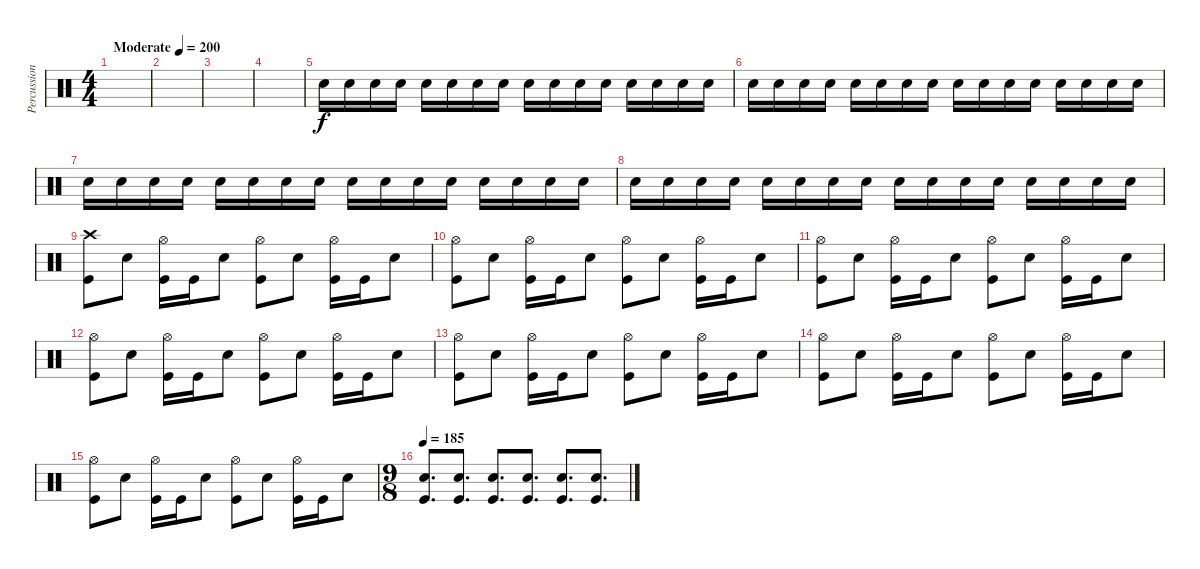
\track ("Percussion" "Percussion") {instrument percussion}
\staff {score}
\articulation defaults
\ts (4 4)
\tempo (200 "Moderate")
\clef neutral
\ks c
|
|
|
|
"Snare (hit) 2".16 "Snare (hit) 2".16 "Snare (hit) 2".16 "Snare (hit) 2".16 "Snare (hit) 2".16 "Snare (hit) 2".16 "Snare (hit) 2".16 "Snare (hit) 2".16 "Snare (hit) 2".16 "Snare (hit) 2".16 "Snare (hit) 2".16 "Snare (hit) 2".16 "Snare (hit) 2".16 "Snare (hit) 2".16 "Snare (hit) 2".16 "Snare (hit) 2".16 |
"Snare (hit) 2".16 "Snare (hit) 2".16 "Snare (hit) 2".16 "Snare (hit) 2".16 "Snare (hit) 2".16 "Snare (hit) 2".16 "Snare (hit) 2".16 "Snare (hit) 2".16 "Snare (hit) 2".16 "Snare (hit) 2".16 "Snare (hit) 2".16 "Snare (hit) 2".16 "Snare (hit) 2".16 "Snare (hit) 2".16 "Snare (hit) 2".16 "Snare (hit) 2".16 |
"Snare (hit) 2".16 "Snare (hit) 2".16 "Snare (hit) 2".16 "Snare (hit) 2".16 "Snare (hit) 2".16 "Snare (hit) 2".16 "Snare (hit) 2".16 "Snare (hit) 2".16 "Snare (hit) 2".16 "Snare (hit) 2".16 "Snare (hit) 2".16 "Snare (hit) 2".16 "Snare (hit) 2".16 "Snare (hit) 2".16 "Snare (hit) 2".16 "Snare (hit) 2".16 |
"Snare (hit) 2".16 "Snare (hit) 2".16 "Snare (hit) 2".16 "Snare (hit) 2".16 "Snare (hit) 2".16 "Snare (hit) 2".16 "Snare (hit) 2".16 "Snare (hit) 2".16 "Snare (hit) 2".16 "Snare (hit) 2".16 "Snare (hit) 2".16 "Snare (hit) 2".16 "Snare (hit) 2".16 "Snare (hit) 2".16 "Snare (hit) 2".16 "Snare (hit) 2".16 |
("Crash high (hit)" "Kick (hit)").8 "Snare (hit) 2".8 ("Hi-Hat (open)" "Kick (hit)").16 "Kick (hit)".16 "Snare (hit) 2".8 ("Hi-Hat (open)" "Kick (hit)").8 "Snare (hit) 2".8 ("Hi-Hat (open)" "Kick (hit)").16 "Kick (hit)".16 "Snare (hit) 2".8 |
("Hi-Hat (open)" "Kick (hit)").8 "Snare (hit) 2".8 ("Hi-Hat (open)" "Kick (hit)").16 "Kick (hit)".16 "Snare (hit) 2".8 ("Hi-Hat (open)" "Kick (hit)").8 "Snare (hit) 2".8 ("Hi-Hat (open)" "Kick (hit)").16 "Kick (hit)".16 "Snare (hit) 2".8 |
("Hi-Hat (open)" "Kick (hit)").8 "Snare (hit) 2".8 ("Hi-Hat (open)" "Kick (hit)").16 "Kick (hit)".16 "Snare (hit) 2".8 ("Hi-Hat (open)" "Kick (hit)").8 "Snare (hit) 2".8 ("Hi-Hat (open)" "Kick (hit)").16 "Kick (hit)".16 "Snare (hit) 2".8 |
("Hi-Hat (open)" "Kick (hit)").8 "Snare (hit) 2".8 ("Hi-Hat (open)" "Kick (hit)").16 "Kick (hit)".16 "Snare (hit) 2".8 ("Hi-Hat (open)" "Kick (hit)").8 "Snare (hit) 2".8 ("Hi-Hat (open)" "Kick (hit)").16 "Kick (hit)".16 "Snare (hit) 2".8 |
("Hi-Hat (open)" "Kick (hit)").8 "Snare (hit) 2".8 ("Hi-Hat (open)" "Kick (hit)").16 "Kick (hit)".16 "Snare (hit) 2".8 ("Hi-Hat (open)" "Kick (hit)").8 "Snare (hit) 2".8 ("Hi-Hat (open)" "Kick (hit)").16 "Kick (hit)".16 "Snare (hit) 2".8 |
("Hi-Hat (open)" "Kick (hit)").8 "Snare (hit) 2".8 ("Hi-Hat (open)" "Kick (hit)").16 "Kick (hit)".16 "Snare (hit) 2".8 ("Hi-Hat (open)" "Kick (hit)").8 "Snare (hit) 2".8 ("Hi-Hat (open)" "Kick (hit)").16 "Kick (hit)".16 "Snare (hit) 2".8 |
("Hi-Hat (open)" "Kick (hit)").8 "Snare (hit) 2".8 ("Hi-Hat (open)" "Kick (hit)").16 "Kick (hit)".16 "Snare (hit) 2".8 ("Hi-Hat (open)" "Kick (hit)").8 "Snare (hit) 2".8 ("Hi-Hat (open)" "Kick (hit)").16 "Kick (hit)".16 "Snare (hit) 2".8 |
\ts (9 8)
\tempo 185
("Snare (hit) 2" "Kick (hit)").8{d} ("Snare (hit) 2" "Kick (hit)").8{d} ("Snare (hit) 2" "Kick (hit)").8{d} ("Snare (hit) 2" "Kick (hit)").8{d} ("Snare (hit) 2" "Kick (hit)").8{d} ("Snare (hit) 2" "Kick (hit)").8{d}
